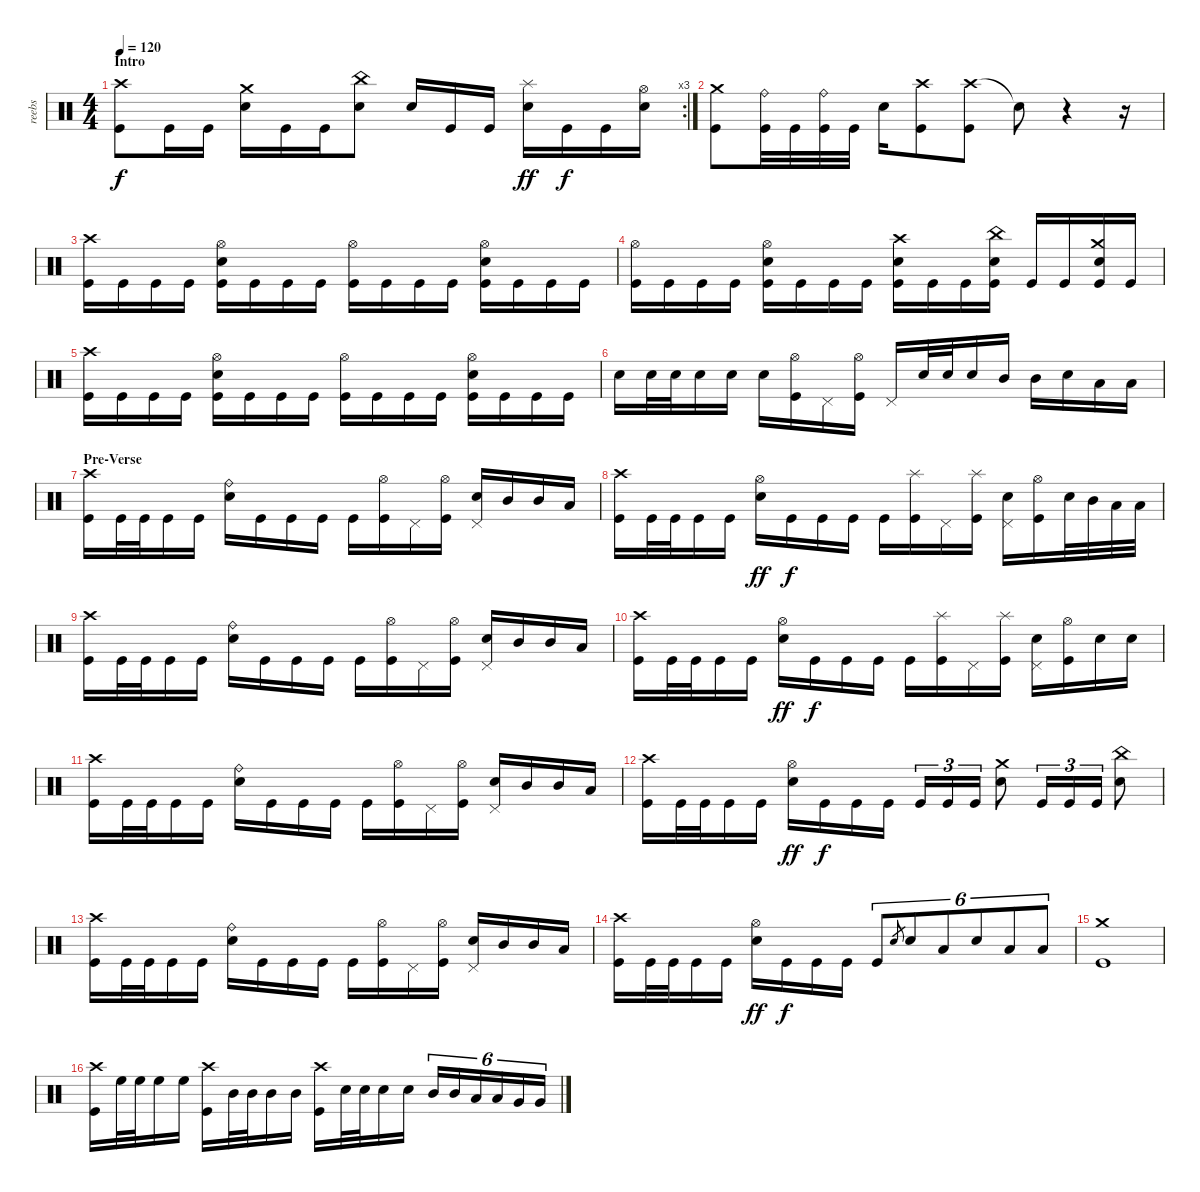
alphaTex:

\track ("reebs" "reebs") {instrument percussion}
\staff {score}
\articulation defaults
\rc 3
\ts (4 4)
\section ("" "Intro")
\tempo 120
\clef neutral
\ks c
("Crash high (hit)" "Kick (hit)").8{dy f} "Kick (hit)".16 "Kick (hit)".16 ("Crash medium (hit)" "Electric Snare (hit)").16 "Kick (hit)".16 "Kick (hit)".16 ("China (hit)" "Electric Snare (hit)").8 "Electric Snare (hit)".16 "Kick (hit)".16 "Kick (hit)".16 ("Splash (hit)" "Electric Snare (hit)").16{dy ff} "Kick (hit)".16{dy f} "Kick (hit)".16 ("Hi-Hat (open)" "Electric Snare (hit)").16 |
("Crash medium (hit)" "Kick (hit)").8 ("Ride (bell)" "Kick (hit)").32 "Kick (hit)".32 ("Ride (bell)" "Kick (hit)").32 "Kick (hit)".32 "Electric Snare (hit)".16 ("Crash high (hit)" "Kick (hit)").8 ("Crash high (hit)" "Kick (hit)").8 "Snare (hit)"{t}.8{volume 0} r.4 r.16 |
("Crash high (hit)" "Kick (hit)").16{volume 13} "Kick (hit)".16 "Kick (hit)".16 "Kick (hit)".16 ("Hi-Hat (open)" "Electric Snare (hit)" "Kick (hit)").16 "Kick (hit)".16 "Kick (hit)".16 "Kick (hit)".16 ("Hi-Hat (open)" "Kick (hit)").16 "Kick (hit)".16 "Kick (hit)".16 "Kick (hit)".16 ("Hi-Hat (open)" "Electric Snare (hit)" "Kick (hit)").16 "Kick (hit)".16 "Kick (hit)".16 "Kick (hit)".16 |
("Hi-Hat (open)" "Kick (hit)").16 "Kick (hit)".16 "Kick (hit)".16 "Kick (hit)".16 ("Hi-Hat (open)" "Electric Snare (hit)" "Kick (hit)").16 "Kick (hit)".16 "Kick (hit)".16 "Kick (hit)".16 ("Crash high (hit)" "Electric Snare (hit)" "Kick (hit)").16 "Kick (hit)".16 "Kick (hit)".16 ("China (hit)" "Electric Snare (hit)" "Kick (hit)").16 "Kick (hit)".16 "Kick (hit)".16 ("Crash medium (hit)" "Electric Snare (hit)" "Kick (hit)").16 "Kick (hit)".16 |
("Crash high (hit)" "Kick (hit)").16 "Kick (hit)".16 "Kick (hit)".16 "Kick (hit)".16 ("Hi-Hat (open)" "Electric Snare (hit)" "Kick (hit)").16 "Kick (hit)".16 "Kick (hit)".16 "Kick (hit)".16 ("Hi-Hat (open)" "Kick (hit)").16 "Kick (hit)".16 "Kick (hit)".16 "Kick (hit)".16 ("Hi-Hat (open)" "Electric Snare (hit)" "Kick (hit)").16 "Kick (hit)".16 "Kick (hit)".16 "Kick (hit)".16 |
"Electric Snare (hit)".16 "Electric Snare (hit)".32 "Electric Snare (hit)".32 "Electric Snare (hit)".16 "Electric Snare (hit)".16 "Electric Snare (hit)".16 ("Hi-Hat (open)" "Kick (hit)").16 "Pedal Hi-Hat (hit)".16 ("Hi-Hat (open)" "Kick (hit)").16 "Pedal Hi-Hat (hit)".16 "Electric Snare (hit)".32 "Electric Snare (hit)".32 "Electric Snare (hit)".16 "Mid Tom (hit)".16 "Mid Tom (hit)".16 "Electric Snare (hit)".16 "Low Tom (hit)".16 "Low Tom (hit)".16 |
\section ("" "Pre-Verse")
("Crash high (hit)" "Kick (hit)").16 "Kick (hit)".32 "Kick (hit)".32 "Kick (hit)".16 "Kick (hit)".16 ("Ride (bell)" "Electric Snare (hit)").16 "Kick (hit)".16 "Kick (hit)".16 "Kick (hit)".16 "Kick (hit)".16 ("Hi-Hat (open)" "Kick (hit)").16 "Pedal Hi-Hat (hit)".16 ("Hi-Hat (open)" "Kick (hit)").16 ("Electric Snare (hit)" "Pedal Hi-Hat (hit)").16 "Mid Tom (hit)".16 "Mid Tom (hit)".16 "Low Tom (hit)".16 |
("Crash high (hit)" "Kick (hit)").16 "Kick (hit)".32 "Kick (hit)".32 "Kick (hit)".16 "Kick (hit)".16 ("Hi-Hat (open)" "Electric Snare (hit)").16{dy ff} "Kick (hit)".16{dy f} "Kick (hit)".16 "Kick (hit)".16 "Kick (hit)".16 ("Splash (hit)" "Kick (hit)").16 "Pedal Hi-Hat (hit)".16 ("Splash (hit)" "Kick (hit)").16 ("Electric Snare (hit)" "Pedal Hi-Hat (hit)").16 ("Hi-Hat (open)" "Kick (hit)").16 "Electric Snare (hit)".32 "Mid Tom (hit)".32 "Low Tom (hit)".32 "Low Tom (hit)".32 |
("Crash high (hit)" "Kick (hit)").16 "Kick (hit)".32 "Kick (hit)".32 "Kick (hit)".16 "Kick (hit)".16 ("Ride (bell)" "Electric Snare (hit)").16 "Kick (hit)".16 "Kick (hit)".16 "Kick (hit)".16 "Kick (hit)".16 ("Hi-Hat (open)" "Kick (hit)").16 "Pedal Hi-Hat (hit)".16 ("Hi-Hat (open)" "Kick (hit)").16 ("Electric Snare (hit)" "Pedal Hi-Hat (hit)").16 "Mid Tom (hit)".16 "Mid Tom (hit)".16 "Low Tom (hit)".16 |
("Crash high (hit)" "Kick (hit)").16 "Kick (hit)".32 "Kick (hit)".32 "Kick (hit)".16 "Kick (hit)".16 ("Hi-Hat (open)" "Electric Snare (hit)").16{dy ff} "Kick (hit)".16{dy f} "Kick (hit)".16 "Kick (hit)".16 "Kick (hit)".16 ("Splash (hit)" "Kick (hit)").16 "Pedal Hi-Hat (hit)".16 ("Splash (hit)" "Kick (hit)").16 ("Electric Snare (hit)" "Pedal Hi-Hat (hit)").16 ("Hi-Hat (open)" "Kick (hit)").16 "Electric Snare (hit)".16 "Electric Snare (hit)".16 |
("Crash high (hit)" "Kick (hit)").16 "Kick (hit)".32 "Kick (hit)".32 "Kick (hit)".16 "Kick (hit)".16 ("Ride (bell)" "Electric Snare (hit)").16 "Kick (hit)".16 "Kick (hit)".16 "Kick (hit)".16 "Kick (hit)".16 ("Hi-Hat (open)" "Kick (hit)").16 "Pedal Hi-Hat (hit)".16 ("Hi-Hat (open)" "Kick (hit)").16 ("Electric Snare (hit)" "Pedal Hi-Hat (hit)").16 "Mid Tom (hit)".16 "Mid Tom (hit)".16 "Low Tom (hit)".16 |
("Crash high (hit)" "Kick (hit)").16 "Kick (hit)".32 "Kick (hit)".32 "Kick (hit)".16 "Kick (hit)".16 ("Hi-Hat (open)" "Electric Snare (hit)").16{dy ff} "Kick (hit)".16{dy f} "Kick (hit)".16 "Kick (hit)".16 "Kick (hit)".16{tu (3 2)} "Kick (hit)".16{tu (3 2)} "Kick (hit)".16{tu (3 2)} ("Crash medium (hit)" "Electric Snare (hit)").8 "Kick (hit)".16{tu (3 2)} "Kick (hit)".16{tu (3 2)} "Kick (hit)".16{tu (3 2)} ("China (hit)" "Electric Snare (hit)").8 |
("Crash high (hit)" "Kick (hit)").16 "Kick (hit)".32 "Kick (hit)".32 "Kick (hit)".16 "Kick (hit)".16 ("Ride (bell)" "Electric Snare (hit)").16 "Kick (hit)".16 "Kick (hit)".16 "Kick (hit)".16 "Kick (hit)".16 ("Hi-Hat (open)" "Kick (hit)").16 "Pedal Hi-Hat (hit)".16 ("Hi-Hat (open)" "Kick (hit)").16 ("Electric Snare (hit)" "Pedal Hi-Hat (hit)").16 "Mid Tom (hit)".16 "Mid Tom (hit)".16 "Low Tom (hit)".16 |
("Crash high (hit)" "Kick (hit)").16 "Kick (hit)".32 "Kick (hit)".32 "Kick (hit)".16 "Kick (hit)".16 ("Hi-Hat (open)" "Electric Snare (hit)").16{dy ff} "Kick (hit)".16{dy f} "Kick (hit)".16 "Kick (hit)".16 "Kick (hit)".8{tu (6 4)} "Electric Snare (hit)".8{gr} "Electric Snare (hit)".8{tu (6 4)} "Low Tom (hit)".8{tu (6 4)} "Electric Snare (hit)".8{tu (6 4)} "Low Tom (hit)".8{tu (6 4)} "Low Tom (hit)".8{tu (6 4)} |
("Crash medium (hit)" "Kick (hit)").1 |
("Crash high (hit)" "Kick (hit)").16 "High Floor Tom (hit)".32 "High Floor Tom (hit)".32 "High Floor Tom (hit)".16 "High Floor Tom (hit)".16 ("Crash high (hit)" "Kick (hit)").16 "Mid Tom (hit)".32 "Mid Tom (hit)".32 "Mid Tom (hit)".16 "Mid Tom (hit)".16 ("Crash high (hit)" "Kick (hit)").16 "Electric Snare (hit)".32 "Electric Snare (hit)".32 "Electric Snare (hit)".16 "Electric Snare (hit)".16 "Mid Tom (hit)".16{tu (6 4)} "Mid Tom (hit)".16{tu (6 4)} "Low Tom (hit)".16{tu (6 4)} "Low Tom (hit)".16{tu (6 4)} "Very Low Tom (hit)".16{tu (6 4)} "Very Low Tom (hit)".16{tu (6 4)}
